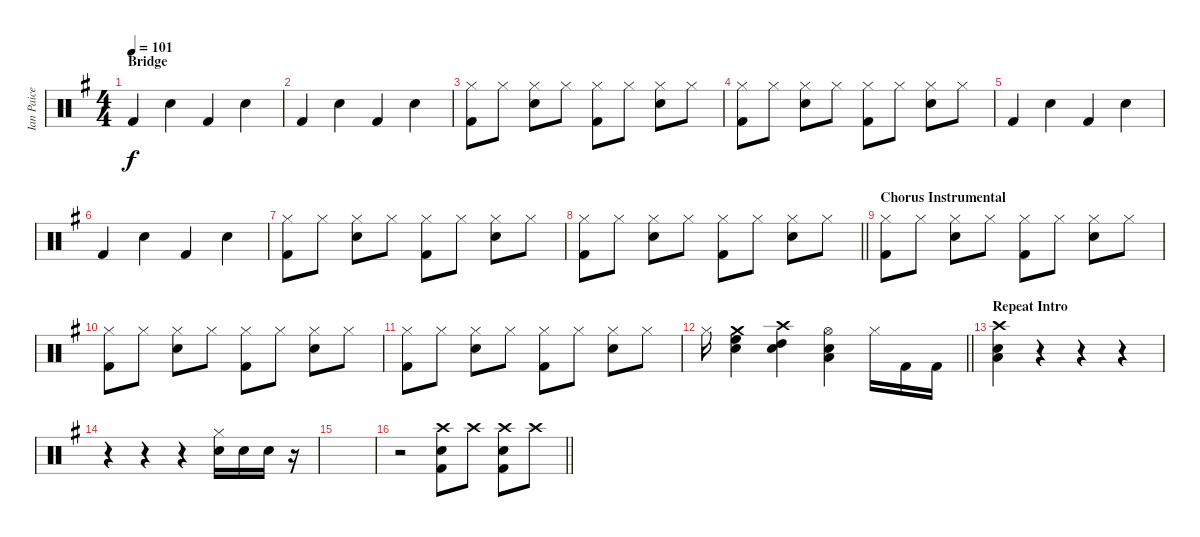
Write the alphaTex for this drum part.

\track ("Ian Paice" "Ian Paice") {instrument percussion}
\staff {score}
\articulation defaults
\ts (4 4)
\section ("" "Bridge")
\tempo 101
\clef neutral
\ks g "Kick (hit) 2".4{dy f} "Snare (hit) 2".4 "Kick (hit) 2".4 "Snare (hit) 2".4
|
"Kick (hit) 2".4 "Snare (hit) 2".4 "Kick (hit) 2".4 "Snare (hit) 2".4 |
("Hi-Hat (closed)" "Kick (hit) 2").8 "Hi-Hat (closed)".8 ("Hi-Hat (closed)" "Snare (hit) 2").8 "Hi-Hat (closed)".8 ("Hi-Hat (closed)" "Kick (hit) 2").8 "Hi-Hat (closed)".8 ("Hi-Hat (closed)" "Snare (hit) 2").8 "Hi-Hat (closed)".8 |
("Hi-Hat (closed)" "Kick (hit) 2").8 "Hi-Hat (closed)".8 ("Hi-Hat (closed)" "Snare (hit) 2").8 "Hi-Hat (closed)".8 ("Hi-Hat (closed)" "Kick (hit) 2").8 "Hi-Hat (closed)".8 ("Hi-Hat (closed)" "Snare (hit) 2").8 "Hi-Hat (closed)".8 |
"Kick (hit) 2".4 "Snare (hit) 2".4 "Kick (hit) 2".4 "Snare (hit) 2".4 |
"Kick (hit) 2".4 "Snare (hit) 2".4 "Kick (hit) 2".4 "Snare (hit) 2".4 |
("Hi-Hat (closed)" "Kick (hit) 2").8 "Hi-Hat (closed)".8 ("Hi-Hat (closed)" "Snare (hit) 2").8 "Hi-Hat (closed)".8 ("Hi-Hat (closed)" "Kick (hit) 2").8 "Hi-Hat (closed)".8 ("Hi-Hat (closed)" "Snare (hit) 2").8 "Hi-Hat (closed)".8 |
\barLineRight lightlight
("Hi-Hat (closed)" "Kick (hit) 2").8 "Hi-Hat (closed)".8 ("Hi-Hat (closed)" "Snare (hit) 2").8 "Hi-Hat (closed)".8 ("Hi-Hat (closed)" "Kick (hit) 2").8 "Hi-Hat (closed)".8 ("Hi-Hat (closed)" "Snare (hit) 2").8 "Hi-Hat (closed)".8 |
\section ("" "Chorus Instrumental")
("Hi-Hat (closed)" "Kick (hit) 2").8 "Hi-Hat (closed)".8 ("Hi-Hat (closed)" "Snare (hit) 2").8 "Hi-Hat (closed)".8 ("Hi-Hat (closed)" "Kick (hit) 2").8 "Hi-Hat (closed)".8 ("Hi-Hat (closed)" "Snare (hit) 2").8 "Hi-Hat (closed)".8 |
("Hi-Hat (closed)" "Kick (hit) 2").8 "Hi-Hat (closed)".8 ("Hi-Hat (closed)" "Snare (hit) 2").8 "Hi-Hat (closed)".8 ("Hi-Hat (closed)" "Kick (hit) 2").8 "Hi-Hat (closed)".8 ("Hi-Hat (closed)" "Snare (hit) 2").8 "Hi-Hat (closed)".8 |
("Hi-Hat (closed)" "Kick (hit) 2").8 "Hi-Hat (closed)".8 ("Hi-Hat (closed)" "Snare (hit) 2").8 "Hi-Hat (closed)".8 ("Hi-Hat (closed)" "Kick (hit) 2").8 "Hi-Hat (closed)".8 ("Hi-Hat (closed)" "Snare (hit) 2").8 "Hi-Hat (closed)".8 |
\barLineRight lightlight "Hi-Hat (closed)".16
("Crash medium (hit)" "High Floor Tom (hit)" "Snare (hit) 2").4 ("Crash high (hit)" "High Tom (hit)" "Snare (hit) 2").4 ("Hi-Hat (open)" "Low Tom (hit)" "Snare (hit) 2").4 "Hi-Hat (closed)".16 "Kick (hit) 2".16 "Kick (hit) 2".16 |
\section ("" "Repeat Intro")
("Electric Snare (hit)" "Crash high (hit)" "Low Floor Tom (hit)").4 r.4 r.4 r.4 |
r.4 r.4 r.4 ("Hi-Hat (closed)" "Snare (hit) 2").16 "Snare (hit) 2".16 "Snare (hit) 2".16 r.16 |
|
\barLineRight lightlight
r.2 ("Crash high (hit)" "Snare (hit) 2" "Kick (hit) 2").8 "Crash high (hit)".8 ("Crash high (hit)" "Snare (hit) 2" "Kick (hit) 2").8 "Crash high (hit)".8
